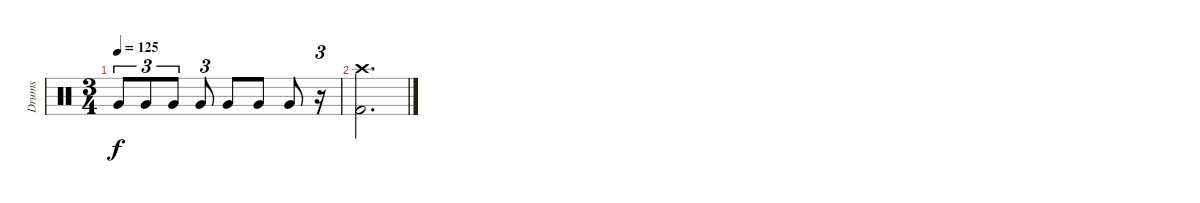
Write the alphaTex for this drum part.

\track ("Drums" "Drums") {instrument percussion}
\staff {score}
\articulation defaults
\ts (3 4)
\tempo 125
\clef neutral
\ks c "Very Low Tom (hit)".8{tu (3 2) dy f} "Very Low Tom (hit)".8{tu (3 2)} "Very Low Tom (hit)".8{tu (3 2)} "Very Low Tom (hit)".8{tu (3 2)} "Very Low Tom (hit)".8 "Very Low Tom (hit)".8 "Very Low Tom (hit)".8
r.16{tu (3 2)} |
("Crash high (hit)" "Kick (hit) 2").2{d}
